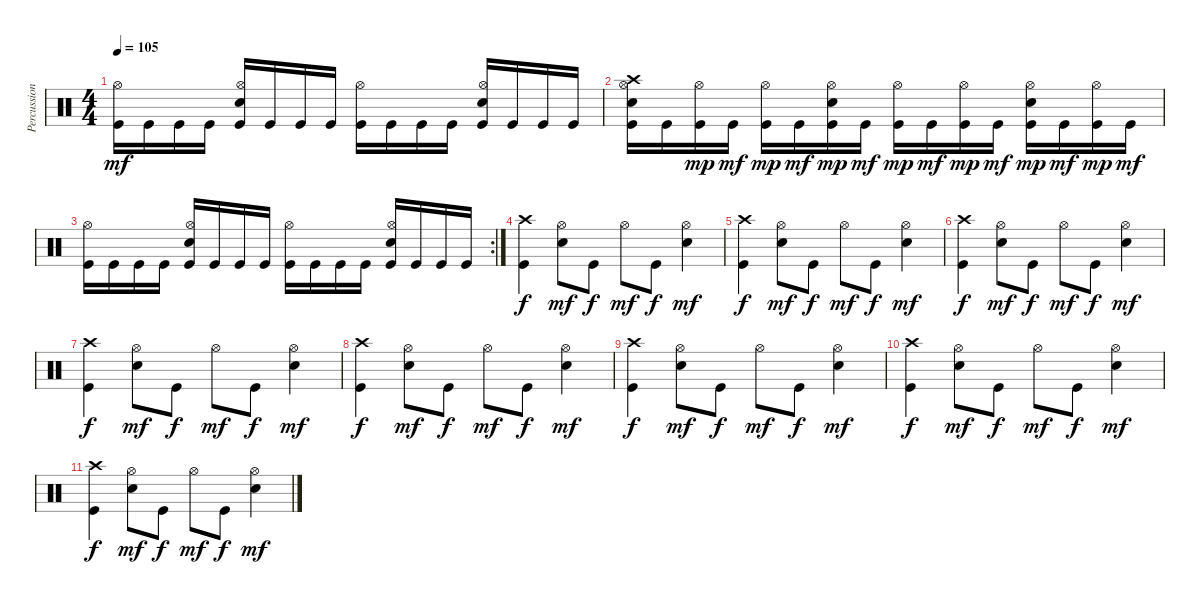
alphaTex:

\track ("Percussions" "Percussion") {instrument percussion}
\staff {score}
\articulation defaults
\ts (4 4)
\tempo 105
\clef neutral
\ks c
("Kick (hit)" "Hi-Hat (open)").16{dy mf} "Kick (hit)".16 "Kick (hit)".16 "Kick (hit)".16 ("Kick (hit)" "Electric Snare (hit)" "Hi-Hat (open)").16 "Kick (hit)".16 "Kick (hit)".16 "Kick (hit)".16 ("Kick (hit)" "Hi-Hat (open)").16 "Kick (hit)".16 "Kick (hit)".16 "Kick (hit)".16 ("Kick (hit)" "Electric Snare (hit)" "Hi-Hat (open)").16 "Kick (hit)".16 "Kick (hit)".16 "Kick (hit)".16 |
("Kick (hit)" "Electric Snare (hit)" "Hi-Hat (open)" "Crash high (hit)").16 "Kick (hit)".16 ("Kick (hit)" "Hi-Hat (open)").16{dy mp} "Kick (hit)".16{dy mf} ("Kick (hit)" "Hi-Hat (open)").16{dy mp} "Kick (hit)".16{dy mf} ("Kick (hit)" "Electric Snare (hit)" "Hi-Hat (open)").16{dy mp} "Kick (hit)".16{dy mf} ("Kick (hit)" "Hi-Hat (open)").16{dy mp} "Kick (hit)".16{dy mf} ("Kick (hit)" "Hi-Hat (open)").16{dy mp} "Kick (hit)".16{dy mf} ("Kick (hit)" "Electric Snare (hit)" "Hi-Hat (open)").16{dy mp} "Kick (hit)".16{dy mf} ("Kick (hit)" "Hi-Hat (open)").16{dy mp} "Kick (hit)".16{dy mf} |
\rc 2
("Kick (hit)" "Hi-Hat (open)").16 "Kick (hit)".16 "Kick (hit)".16 "Kick (hit)".16 ("Kick (hit)" "Electric Snare (hit)" "Hi-Hat (open)").16 "Kick (hit)".16 "Kick (hit)".16 "Kick (hit)".16 ("Kick (hit)" "Hi-Hat (open)").16 "Kick (hit)".16 "Kick (hit)".16 "Kick (hit)".16 ("Kick (hit)" "Electric Snare (hit)" "Hi-Hat (open)").16 "Kick (hit)".16 "Kick (hit)".16 "Kick (hit)".16 |
("Kick (hit)" "Crash high (hit)").4{dy f volume 8} ("Electric Snare (hit)" "Hi-Hat (open)").8{dy mf} "Kick (hit)".8{dy f} "Hi-Hat (open)".8{dy mf} "Kick (hit)".8{dy f} ("Electric Snare (hit)" "Hi-Hat (open)").4{dy mf} |
("Kick (hit)" "Crash high (hit)").4{dy f} ("Electric Snare (hit)" "Hi-Hat (open)").8{dy mf} "Kick (hit)".8{dy f} "Hi-Hat (open)".8{dy mf} "Kick (hit)".8{dy f} ("Electric Snare (hit)" "Hi-Hat (open)").4{dy mf} |
("Kick (hit)" "Crash high (hit)").4{dy f} ("Electric Snare (hit)" "Hi-Hat (open)").8{dy mf} "Kick (hit)".8{dy f} "Hi-Hat (open)".8{dy mf} "Kick (hit)".8{dy f} ("Electric Snare (hit)" "Hi-Hat (open)").4{dy mf} |
("Kick (hit)" "Crash high (hit)").4{dy f} ("Electric Snare (hit)" "Hi-Hat (open)").8{dy mf} "Kick (hit)".8{dy f} "Hi-Hat (open)".8{dy mf} "Kick (hit)".8{dy f} ("Electric Snare (hit)" "Hi-Hat (open)").4{dy mf} |
("Kick (hit)" "Crash high (hit)").4{dy f volume 0} ("Electric Snare (hit)" "Hi-Hat (open)").8{dy mf} "Kick (hit)".8{dy f} "Hi-Hat (open)".8{dy mf} "Kick (hit)".8{dy f} ("Electric Snare (hit)" "Hi-Hat (open)").4{dy mf} |
("Kick (hit)" "Crash high (hit)").4{dy f} ("Electric Snare (hit)" "Hi-Hat (open)").8{dy mf} "Kick (hit)".8{dy f} "Hi-Hat (open)".8{dy mf} "Kick (hit)".8{dy f} ("Electric Snare (hit)" "Hi-Hat (open)").4{dy mf} |
("Kick (hit)" "Crash high (hit)").4{dy f} ("Electric Snare (hit)" "Hi-Hat (open)").8{dy mf} "Kick (hit)".8{dy f} "Hi-Hat (open)".8{dy mf} "Kick (hit)".8{dy f} ("Electric Snare (hit)" "Hi-Hat (open)").4{dy mf} |
("Kick (hit)" "Crash high (hit)").4{dy f} ("Electric Snare (hit)" "Hi-Hat (open)").8{dy mf} "Kick (hit)".8{dy f} "Hi-Hat (open)".8{dy mf} "Kick (hit)".8{dy f} ("Electric Snare (hit)" "Hi-Hat (open)").4{dy mf}
